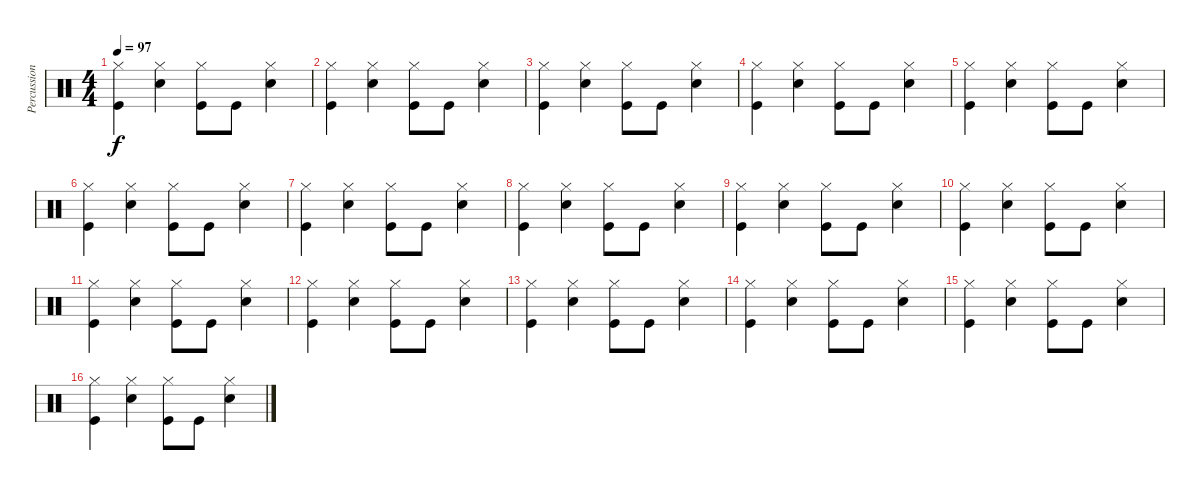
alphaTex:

\track ("Percussion" "Percussion") {instrument percussion}
\staff {score}
\articulation defaults
\ts (4 4)
\tempo 97
\clef neutral
\ks c
("Hi-Hat (closed)" "Kick (hit)").4{dy f} ("Hi-Hat (closed)" "Snare (hit) 2").4 ("Hi-Hat (closed)" "Kick (hit)").8 "Kick (hit)".8 ("Hi-Hat (closed)" "Snare (hit) 2").4 |
("Hi-Hat (closed)" "Kick (hit)").4 ("Hi-Hat (closed)" "Snare (hit) 2").4 ("Hi-Hat (closed)" "Kick (hit)").8 "Kick (hit)".8 ("Hi-Hat (closed)" "Snare (hit) 2").4 |
("Hi-Hat (closed)" "Kick (hit)").4 ("Hi-Hat (closed)" "Snare (hit) 2").4 ("Hi-Hat (closed)" "Kick (hit)").8 "Kick (hit)".8 ("Hi-Hat (closed)" "Snare (hit) 2").4 |
("Hi-Hat (closed)" "Kick (hit)").4 ("Hi-Hat (closed)" "Snare (hit) 2").4 ("Hi-Hat (closed)" "Kick (hit)").8 "Kick (hit)".8 ("Hi-Hat (closed)" "Snare (hit) 2").4 |
("Hi-Hat (closed)" "Kick (hit)").4 ("Hi-Hat (closed)" "Snare (hit) 2").4 ("Hi-Hat (closed)" "Kick (hit)").8 "Kick (hit)".8 ("Hi-Hat (closed)" "Snare (hit) 2").4 |
("Hi-Hat (closed)" "Kick (hit)").4 ("Hi-Hat (closed)" "Snare (hit) 2").4 ("Hi-Hat (closed)" "Kick (hit)").8 "Kick (hit)".8 ("Hi-Hat (closed)" "Snare (hit) 2").4 |
("Hi-Hat (closed)" "Kick (hit)").4 ("Hi-Hat (closed)" "Snare (hit) 2").4 ("Hi-Hat (closed)" "Kick (hit)").8 "Kick (hit)".8 ("Hi-Hat (closed)" "Snare (hit) 2").4 |
("Hi-Hat (closed)" "Kick (hit)").4 ("Hi-Hat (closed)" "Snare (hit) 2").4 ("Hi-Hat (closed)" "Kick (hit)").8 "Kick (hit)".8 ("Hi-Hat (closed)" "Snare (hit) 2").4 |
("Hi-Hat (closed)" "Kick (hit)").4 ("Hi-Hat (closed)" "Snare (hit) 2").4 ("Hi-Hat (closed)" "Kick (hit)").8 "Kick (hit)".8 ("Hi-Hat (closed)" "Snare (hit) 2").4 |
("Hi-Hat (closed)" "Kick (hit)").4 ("Hi-Hat (closed)" "Snare (hit) 2").4 ("Hi-Hat (closed)" "Kick (hit)").8 "Kick (hit)".8 ("Hi-Hat (closed)" "Snare (hit) 2").4 |
("Hi-Hat (closed)" "Kick (hit)").4 ("Hi-Hat (closed)" "Snare (hit) 2").4 ("Hi-Hat (closed)" "Kick (hit)").8 "Kick (hit)".8 ("Hi-Hat (closed)" "Snare (hit) 2").4 |
("Hi-Hat (closed)" "Kick (hit)").4 ("Hi-Hat (closed)" "Snare (hit) 2").4 ("Hi-Hat (closed)" "Kick (hit)").8 "Kick (hit)".8 ("Hi-Hat (closed)" "Snare (hit) 2").4 |
("Hi-Hat (closed)" "Kick (hit)").4 ("Hi-Hat (closed)" "Snare (hit) 2").4 ("Hi-Hat (closed)" "Kick (hit)").8 "Kick (hit)".8 ("Hi-Hat (closed)" "Snare (hit) 2").4 |
("Hi-Hat (closed)" "Kick (hit)").4 ("Hi-Hat (closed)" "Snare (hit) 2").4 ("Hi-Hat (closed)" "Kick (hit)").8 "Kick (hit)".8 ("Hi-Hat (closed)" "Snare (hit) 2").4 |
("Hi-Hat (closed)" "Kick (hit)").4 ("Hi-Hat (closed)" "Snare (hit) 2").4 ("Hi-Hat (closed)" "Kick (hit)").8 "Kick (hit)".8 ("Hi-Hat (closed)" "Snare (hit) 2").4 |
("Hi-Hat (closed)" "Kick (hit)").4 ("Hi-Hat (closed)" "Snare (hit) 2").4 ("Hi-Hat (closed)" "Kick (hit)").8 "Kick (hit)".8 ("Hi-Hat (closed)" "Snare (hit) 2").4
